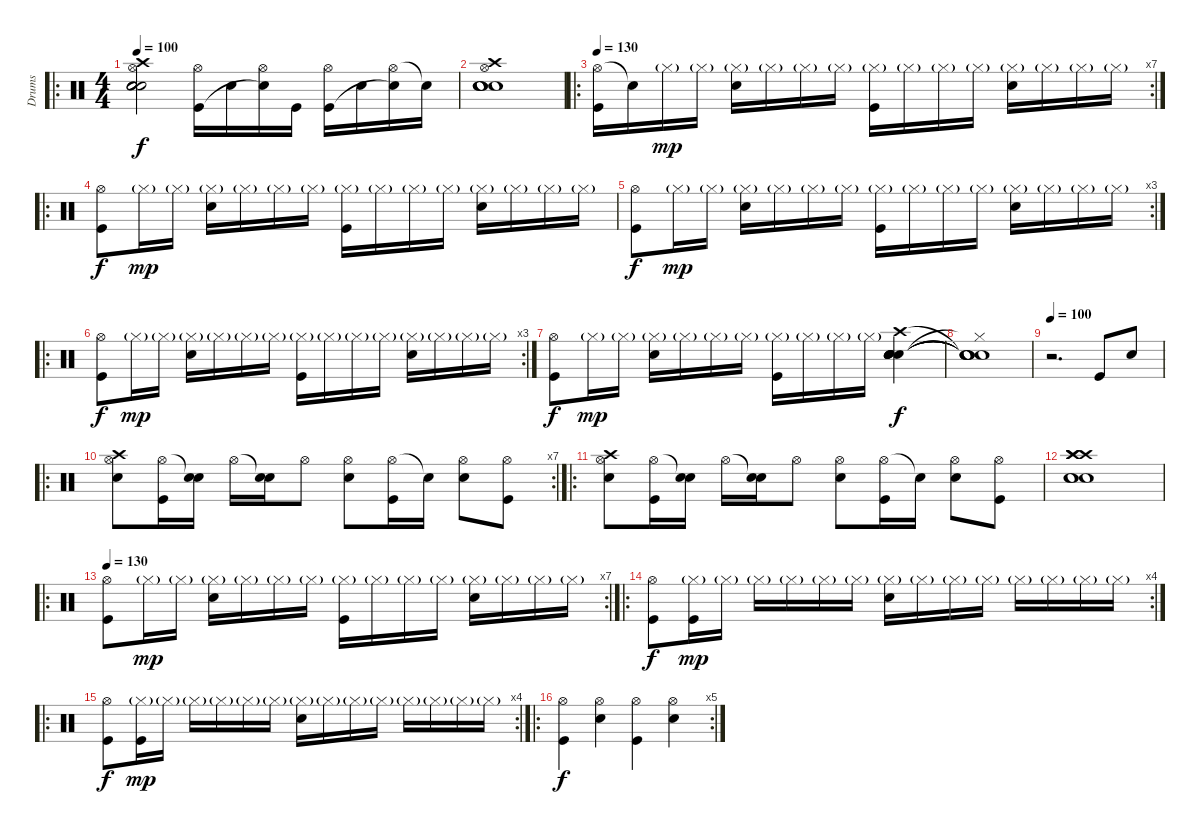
\track ("Drums" "Drums") {instrument percussion}
\staff {score}
\articulation defaults
\ro
\ts (4 4)
\tempo 100
\clef neutral
\ks c
("Hi-Hat (open)" "Crash high (hit)" "Electric Snare (hit)" "Electric Snare (hit)" "Electric Snare (hit)" "Electric Snare (hit)").2{dy f} ("Hi-Hat (open)" "Kick (hit)").16 "Electric Snare (hit)".16 ("Hi-Hat (open)" "Snare (hit)"{t}).16 "Kick (hit)".16 ("Hi-Hat (open)" "Kick (hit)").16 "Electric Snare (hit)".16 ("Hi-Hat (open)" "Snare (hit)"{t}).16 "Snare (hit)"{t}.16 |
("Crash high (hit)" "Hi-Hat (open)" "Electric Snare (hit)" "Electric Snare (hit)" "Electric Snare (hit)" "Electric Snare (hit)").1 |
\ro
\rc 7
\tempo 130
("Hi-Hat (open)" "Kick (hit)").16 "Snare (hit)"{t}.16 "Hi-Hat (closed)"{g}.16{dy mp} "Hi-Hat (closed)"{g}.16 ("Hi-Hat (closed)"{g} "Electric Snare (hit)").16 "Hi-Hat (closed)"{g}.16 "Hi-Hat (closed)"{g}.16 "Hi-Hat (closed)"{g}.16 ("Hi-Hat (closed)"{g} "Kick (hit)").16 "Hi-Hat (closed)"{g}.16 "Hi-Hat (closed)"{g}.16 "Hi-Hat (closed)"{g}.16 ("Hi-Hat (closed)"{g} "Electric Snare (hit)").16 "Hi-Hat (closed)"{g}.16 "Hi-Hat (closed)"{g}.16 "Hi-Hat (closed)"{g}.16 |
\ro
("Hi-Hat (open)" "Kick (hit)").8{dy f} "Hi-Hat (closed)"{g}.16{dy mp} "Hi-Hat (closed)"{g}.16 ("Hi-Hat (closed)"{g} "Electric Snare (hit)").16 "Hi-Hat (closed)"{g}.16 "Hi-Hat (closed)"{g}.16 "Hi-Hat (closed)"{g}.16 ("Hi-Hat (closed)"{g} "Kick (hit)").16 "Hi-Hat (closed)"{g}.16 "Hi-Hat (closed)"{g}.16 "Hi-Hat (closed)"{g}.16 ("Hi-Hat (closed)"{g} "Electric Snare (hit)").16 "Hi-Hat (closed)"{g}.16 "Hi-Hat (closed)"{g}.16 "Hi-Hat (closed)"{g}.16 |
\rc 3
("Hi-Hat (open)" "Kick (hit)").8{dy f} "Hi-Hat (closed)"{g}.16{dy mp} "Hi-Hat (closed)"{g}.16 ("Hi-Hat (closed)"{g} "Electric Snare (hit)").16 "Hi-Hat (closed)"{g}.16 "Hi-Hat (closed)"{g}.16 "Hi-Hat (closed)"{g}.16 ("Hi-Hat (closed)"{g} "Kick (hit)").16 "Hi-Hat (closed)"{g}.16 "Hi-Hat (closed)"{g}.16 "Hi-Hat (closed)"{g}.16 ("Hi-Hat (closed)"{g} "Electric Snare (hit)").16 "Hi-Hat (closed)"{g}.16 "Hi-Hat (closed)"{g}.16 "Hi-Hat (closed)"{g}.16 |
\ro
\rc 3
("Hi-Hat (open)" "Kick (hit)").8{dy f} "Hi-Hat (closed)"{g}.16{dy mp} "Hi-Hat (closed)"{g}.16 ("Hi-Hat (closed)"{g} "Electric Snare (hit)").16 "Hi-Hat (closed)"{g}.16 "Hi-Hat (closed)"{g}.16 "Hi-Hat (closed)"{g}.16 ("Hi-Hat (closed)"{g} "Kick (hit)").16 "Hi-Hat (closed)"{g}.16 "Hi-Hat (closed)"{g}.16 "Hi-Hat (closed)"{g}.16 ("Hi-Hat (closed)"{g} "Electric Snare (hit)").16 "Hi-Hat (closed)"{g}.16 "Hi-Hat (closed)"{g}.16 "Hi-Hat (closed)"{g}.16 |
("Hi-Hat (open)" "Kick (hit)").8{dy f} "Hi-Hat (closed)"{g}.16{dy mp} "Hi-Hat (closed)"{g}.16 ("Hi-Hat (closed)"{g} "Electric Snare (hit)").16 "Hi-Hat (closed)"{g}.16 "Hi-Hat (closed)"{g}.16 "Hi-Hat (closed)"{g}.16 ("Hi-Hat (closed)"{g} "Kick (hit)").16 "Hi-Hat (closed)"{g}.16 "Hi-Hat (closed)"{g}.16 "Hi-Hat (closed)"{g}.16 ("Crash high (hit)" "Electric Snare (hit)" "Electric Snare (hit)" "Electric Snare (hit)" "Electric Snare (hit)" "Electric Snare (hit)").4{dy f} |
("Snare (hit)"{t} "Snare (hit)"{t} "Snare (hit)"{t} "Hi-Hat (closed)"{t} "Snare (hit)"{t} "Snare (hit)"{t}).1 |
\tempo 100
r.2{d} "Kick (hit)".8 "Electric Snare (hit)".8 |
\ro
\rc 7
("Hi-Hat (open)" "Crash high (hit)" "Snare (hit) 2").8 ("Hi-Hat (open)" "Kick (hit)").16 ("Snare (hit)"{t} "Snare (hit) 2").16 "Hi-Hat (open)".16 ("Snare (hit)"{t} "Snare (hit) 2").16 "Hi-Hat (open)".8 ("Hi-Hat (open)" "Snare (hit) 2").8 ("Hi-Hat (open)" "Kick (hit)").16 "Snare (hit)"{t}.16 ("Hi-Hat (open)" "Snare (hit) 2").8 ("Hi-Hat (open)" "Kick (hit)").8 |
\ro
("Hi-Hat (open)" "Crash high (hit)" "Snare (hit) 2").8 ("Hi-Hat (open)" "Kick (hit)").16 ("Snare (hit)"{t} "Snare (hit) 2").16 "Hi-Hat (open)".16 ("Snare (hit)"{t} "Snare (hit) 2").16 "Hi-Hat (open)".8 ("Hi-Hat (open)" "Snare (hit) 2").8 ("Hi-Hat (open)" "Kick (hit)").16 "Snare (hit)"{t}.16 ("Hi-Hat (open)" "Snare (hit) 2").8 ("Hi-Hat (open)" "Kick (hit)").8 |
("Crash high (hit)" "Crash high (hit)" "Electric Snare (hit)" "Crash high (hit)" "Electric Snare (hit)" "Electric Snare (hit)").1 |
\ro
\rc 7
\tempo 130
("Hi-Hat (open)" "Kick (hit)").8 "Hi-Hat (closed)"{g}.16{dy mp} "Hi-Hat (closed)"{g}.16 ("Hi-Hat (closed)"{g} "Electric Snare (hit)").16 "Hi-Hat (closed)"{g}.16 "Hi-Hat (closed)"{g}.16 "Hi-Hat (closed)"{g}.16 ("Hi-Hat (closed)"{g} "Kick (hit)").16 "Hi-Hat (closed)"{g}.16 "Hi-Hat (closed)"{g}.16 "Hi-Hat (closed)"{g}.16 ("Hi-Hat (closed)"{g} "Electric Snare (hit)").16 "Hi-Hat (closed)"{g}.16 "Hi-Hat (closed)"{g}.16 "Hi-Hat (closed)"{g}.16 |
\ro
\rc 4
("Hi-Hat (open)" "Kick (hit)").8{dy f} ("Hi-Hat (closed)"{g} "Kick (hit)").16{dy mp} "Hi-Hat (closed)"{g}.16 "Hi-Hat (closed)"{g}.16 "Hi-Hat (closed)"{g}.16 "Hi-Hat (closed)"{g}.16 "Hi-Hat (closed)"{g}.16 ("Hi-Hat (closed)"{g} "Electric Snare (hit)").16 "Hi-Hat (closed)"{g}.16 "Hi-Hat (closed)"{g}.16 "Hi-Hat (closed)"{g}.16 "Hi-Hat (closed)"{g}.16 "Hi-Hat (closed)"{g}.16 "Hi-Hat (closed)"{g}.16 "Hi-Hat (closed)"{g}.16 |
\ro
\rc 4
("Hi-Hat (open)" "Kick (hit)").8{dy f} ("Hi-Hat (closed)"{g} "Kick (hit)").16{dy mp} "Hi-Hat (closed)"{g}.16 "Hi-Hat (closed)"{g}.16 "Hi-Hat (closed)"{g}.16 "Hi-Hat (closed)"{g}.16 "Hi-Hat (closed)"{g}.16 ("Hi-Hat (closed)"{g} "Electric Snare (hit)").16 "Hi-Hat (closed)"{g}.16 "Hi-Hat (closed)"{g}.16 "Hi-Hat (closed)"{g}.16 "Hi-Hat (closed)"{g}.16 "Hi-Hat (closed)"{g}.16 "Hi-Hat (closed)"{g}.16 "Hi-Hat (closed)"{g}.16 |
\ro
\rc 5
("Hi-Hat (open)" "Kick (hit)").4{dy f} ("Hi-Hat (open)" "Electric Snare (hit)").4 ("Hi-Hat (open)" "Kick (hit)").4 ("Hi-Hat (open)" "Electric Snare (hit)").4
